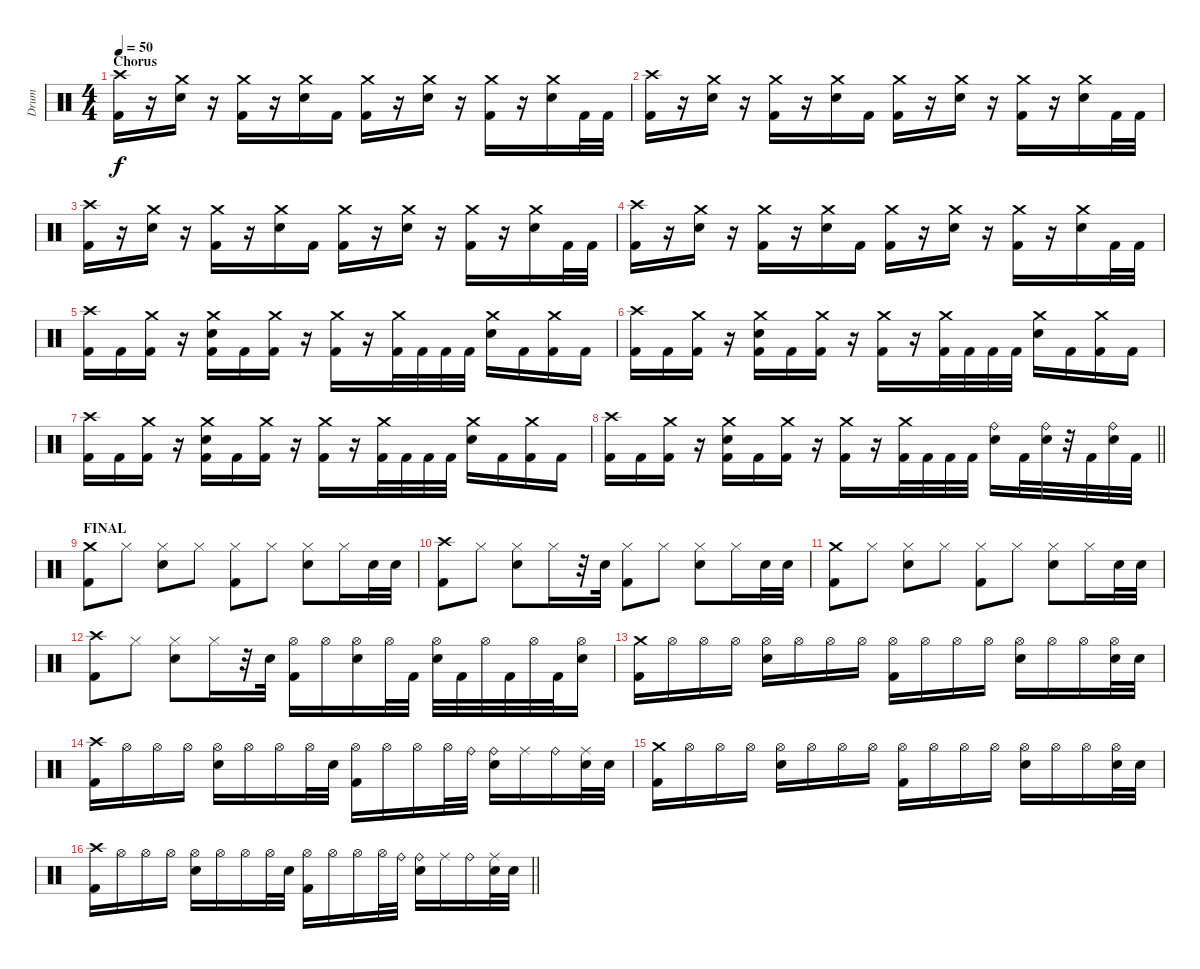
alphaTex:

\track ("Drum " "Drum ") {instrument percussion}
\staff {score}
\articulation defaults
\ts (4 4)
\section ("" "Chorus")
\tempo 50
\clef neutral
\ks c
("Crash high (hit)" "Kick (hit) 2").16{dy f} r.16 ("Crash medium (hit)" "Electric Snare (hit)").16 r.16 ("Crash medium (hit)" "Kick (hit) 2").16 r.16 ("Crash medium (hit)" "Electric Snare (hit)").16 "Kick (hit) 2".16 ("Crash medium (hit)" "Kick (hit) 2").16 r.16 ("Crash medium (hit)" "Electric Snare (hit)").16 r.16 ("Crash medium (hit)" "Kick (hit) 2").16 r.16 ("Crash medium (hit)" "Electric Snare (hit)").16 "Kick (hit) 2".32 "Kick (hit) 2".32 |
("Crash high (hit)" "Kick (hit) 2").16 r.16 ("Crash medium (hit)" "Electric Snare (hit)").16 r.16 ("Crash medium (hit)" "Kick (hit) 2").16 r.16 ("Crash medium (hit)" "Electric Snare (hit)").16 "Kick (hit) 2".16 ("Crash medium (hit)" "Kick (hit) 2").16 r.16 ("Crash medium (hit)" "Electric Snare (hit)").16 r.16 ("Crash medium (hit)" "Kick (hit) 2").16 r.16 ("Crash medium (hit)" "Electric Snare (hit)").16 "Kick (hit) 2".32 "Kick (hit) 2".32 |
("Crash high (hit)" "Kick (hit) 2").16 r.16 ("Crash medium (hit)" "Electric Snare (hit)").16 r.16 ("Crash medium (hit)" "Kick (hit) 2").16 r.16 ("Crash medium (hit)" "Electric Snare (hit)").16 "Kick (hit) 2".16 ("Crash medium (hit)" "Kick (hit) 2").16 r.16 ("Crash medium (hit)" "Electric Snare (hit)").16 r.16 ("Crash medium (hit)" "Kick (hit) 2").16 r.16 ("Crash medium (hit)" "Electric Snare (hit)").16 "Kick (hit) 2".32 "Kick (hit) 2".32 |
("Crash high (hit)" "Kick (hit) 2").16 r.16 ("Crash medium (hit)" "Electric Snare (hit)").16 r.16 ("Crash medium (hit)" "Kick (hit) 2").16 r.16 ("Crash medium (hit)" "Electric Snare (hit)").16 "Kick (hit) 2".16 ("Crash medium (hit)" "Kick (hit) 2").16 r.16 ("Crash medium (hit)" "Electric Snare (hit)").16 r.16 ("Crash medium (hit)" "Kick (hit) 2").16 r.16 ("Crash medium (hit)" "Electric Snare (hit)").16 "Kick (hit) 2".32 "Kick (hit) 2".32 |
("Crash high (hit)" "Kick (hit) 2").16 "Kick (hit) 2".16 ("Crash medium (hit)" "Kick (hit) 2").16 r.16 ("Crash medium (hit)" "Snare (hit) 2" "Kick (hit) 2").16 "Kick (hit) 2".16 ("Crash medium (hit)" "Kick (hit) 2").16 r.16 ("Crash medium (hit)" "Kick (hit) 2").16 r.16 ("Crash medium (hit)" "Kick (hit) 2").32 "Kick (hit) 2".32 "Kick (hit) 2".32 "Kick (hit) 2".32 ("Crash medium (hit)" "Snare (hit) 2").16 "Kick (hit) 2".16 ("Crash medium (hit)" "Kick (hit) 2").16 "Kick (hit) 2".16 |
("Crash high (hit)" "Kick (hit) 2").16 "Kick (hit) 2".16 ("Crash medium (hit)" "Kick (hit) 2").16 r.16 ("Crash medium (hit)" "Snare (hit) 2" "Kick (hit) 2").16 "Kick (hit) 2".16 ("Crash medium (hit)" "Kick (hit) 2").16 r.16 ("Crash medium (hit)" "Kick (hit) 2").16 r.16 ("Crash medium (hit)" "Kick (hit) 2").32 "Kick (hit) 2".32 "Kick (hit) 2".32 "Kick (hit) 2".32 ("Crash medium (hit)" "Snare (hit) 2").16 "Kick (hit) 2".16 ("Crash medium (hit)" "Kick (hit) 2").16 "Kick (hit) 2".16 |
("Crash high (hit)" "Kick (hit) 2").16 "Kick (hit) 2".16 ("Crash medium (hit)" "Kick (hit) 2").16 r.16 ("Crash medium (hit)" "Snare (hit) 2" "Kick (hit) 2").16 "Kick (hit) 2".16 ("Crash medium (hit)" "Kick (hit) 2").16 r.16 ("Crash medium (hit)" "Kick (hit) 2").16 r.16 ("Crash medium (hit)" "Kick (hit) 2").32 "Kick (hit) 2".32 "Kick (hit) 2".32 "Kick (hit) 2".32 ("Crash medium (hit)" "Snare (hit) 2").16 "Kick (hit) 2".16 ("Crash medium (hit)" "Kick (hit) 2").16 "Kick (hit) 2".16 |
\barLineRight lightlight
("Crash high (hit)" "Kick (hit) 2").16 "Kick (hit) 2".16 ("Crash medium (hit)" "Kick (hit) 2").16 r.16 ("Crash medium (hit)" "Snare (hit) 2" "Kick (hit) 2").16 "Kick (hit) 2".16 ("Crash medium (hit)" "Kick (hit) 2").16 r.16 ("Crash medium (hit)" "Kick (hit) 2").16 r.16 ("Crash medium (hit)" "Kick (hit) 2").32 "Kick (hit) 2".32 "Kick (hit) 2".32 "Kick (hit) 2".32 ("Ride (bell)" "Snare (hit) 2").16 "Kick (hit) 2".32 ("Ride (bell)" "Snare (hit) 2").32 r.32 "Kick (hit) 2".32 ("Ride (bell)" "Snare (hit) 2").32 "Kick (hit) 2".32 |
\section ("" "FINAL")
("Crash medium (hit)" "Kick (hit) 2").8 "Hi-Hat (closed)".8 ("Hi-Hat (closed)" "Electric Snare (hit)").8 "Hi-Hat (closed)".8 ("Hi-Hat (closed)" "Kick (hit) 2").8 "Hi-Hat (closed)".8 ("Hi-Hat (closed)" "Electric Snare (hit)").8 "Hi-Hat (closed)".16 "Electric Snare (hit)".32 "Electric Snare (hit)".32 |
("Crash high (hit)" "Kick (hit) 2").8 "Hi-Hat (closed)".8 ("Hi-Hat (closed)" "Electric Snare (hit)").8 "Hi-Hat (closed)".16 r.32 "Electric Snare (hit)".32 ("Hi-Hat (closed)" "Kick (hit) 2").8 "Hi-Hat (closed)".8 ("Hi-Hat (closed)" "Electric Snare (hit)").8 "Hi-Hat (closed)".16 "Electric Snare (hit)".32 "Electric Snare (hit)".32 |
("Crash medium (hit)" "Kick (hit) 2").8 "Hi-Hat (closed)".8 ("Hi-Hat (closed)" "Electric Snare (hit)").8 "Hi-Hat (closed)".8 ("Hi-Hat (closed)" "Kick (hit) 2").8 "Hi-Hat (closed)".8 ("Hi-Hat (closed)" "Electric Snare (hit)").8 "Hi-Hat (closed)".16 "Electric Snare (hit)".32 "Electric Snare (hit)".32 |
("Crash high (hit)" "Kick (hit) 2").8 "Hi-Hat (closed)".8 ("Hi-Hat (closed)" "Electric Snare (hit)").8 "Hi-Hat (closed)".16 r.32 "Electric Snare (hit)".32 ("Hi-Hat (open)" "Kick (hit) 2").16 "Hi-Hat (open)".16 ("Hi-Hat (open)" "Electric Snare (hit)").16 "Hi-Hat (open)".32 "Kick (hit) 2".32 ("Hi-Hat (open)" "Electric Snare (hit)").32 "Kick (hit) 2".32 "Hi-Hat (open)".32 "Kick (hit) 2".32 "Hi-Hat (open)".32 "Kick (hit) 2".32 ("Hi-Hat (open)" "Electric Snare (hit)").16 |
("Crash medium (hit)" "Kick (hit) 2").16 "Hi-Hat (open)".16 "Hi-Hat (open)".16 "Hi-Hat (open)".16 ("Hi-Hat (open)" "Electric Snare (hit)").16 "Hi-Hat (open)".16 "Hi-Hat (open)".16 "Hi-Hat (open)".16 ("Hi-Hat (open)" "Kick (hit) 2").16 "Hi-Hat (open)".16 "Hi-Hat (open)".16 "Hi-Hat (open)".16 ("Hi-Hat (open)" "Electric Snare (hit)").16 "Hi-Hat (open)".16 "Hi-Hat (open)".16 ("Hi-Hat (open)" "Electric Snare (hit)").32 "Electric Snare (hit)".32 |
("Crash high (hit)" "Kick (hit) 2").16 "Hi-Hat (open)".16 "Hi-Hat (open)".16 "Hi-Hat (open)".16 ("Hi-Hat (open)" "Electric Snare (hit)").16 "Hi-Hat (open)".16 "Hi-Hat (open)".16 "Hi-Hat (open)".32 "Electric Snare (hit)".32 ("Hi-Hat (open)" "Kick (hit) 2").16 "Hi-Hat (open)".16 "Hi-Hat (open)".16 "Hi-Hat (open)".32 "Ride (bell)".32 ("Ride (bell)" "Electric Snare (hit)").16 "Ride (middle)".16 "Ride (bell)".16 ("Ride (middle)" "Electric Snare (hit)").32 "Electric Snare (hit)".32 |
("Crash medium (hit)" "Kick (hit) 2").16 "Hi-Hat (open)".16 "Hi-Hat (open)".16 "Hi-Hat (open)".16 ("Hi-Hat (open)" "Electric Snare (hit)").16 "Hi-Hat (open)".16 "Hi-Hat (open)".16 "Hi-Hat (open)".16 ("Hi-Hat (open)" "Kick (hit) 2").16 "Hi-Hat (open)".16 "Hi-Hat (open)".16 "Hi-Hat (open)".16 ("Hi-Hat (open)" "Electric Snare (hit)").16 "Hi-Hat (open)".16 "Hi-Hat (open)".16 ("Hi-Hat (open)" "Electric Snare (hit)").32 "Electric Snare (hit)".32 |
\barLineRight lightlight
("Crash high (hit)" "Kick (hit) 2").16 "Hi-Hat (open)".16 "Hi-Hat (open)".16 "Hi-Hat (open)".16 ("Hi-Hat (open)" "Electric Snare (hit)").16 "Hi-Hat (open)".16 "Hi-Hat (open)".16 "Hi-Hat (open)".32 "Electric Snare (hit)".32 ("Hi-Hat (open)" "Kick (hit) 2").16 "Hi-Hat (open)".16 "Hi-Hat (open)".16 "Hi-Hat (open)".32 "Ride (bell)".32 ("Ride (bell)" "Electric Snare (hit)").16 "Ride (middle)".16 "Ride (bell)".16 ("Ride (middle)" "Electric Snare (hit)").32 "Electric Snare (hit)".32
